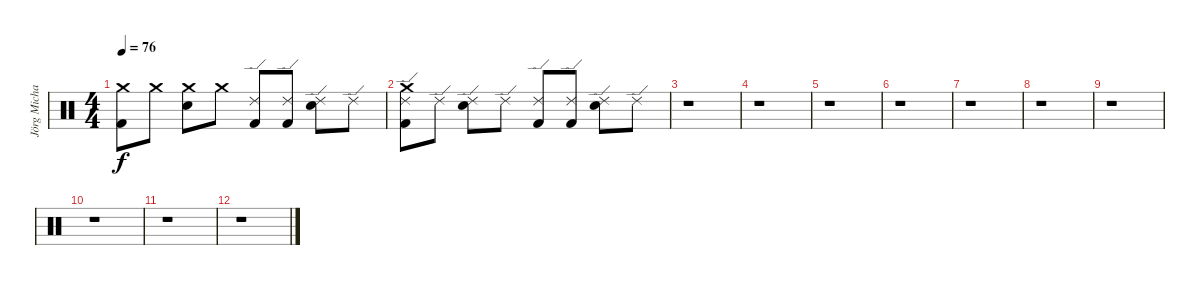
\track ("Jörg Michael" "Jörg Micha") {instrument percussion}
\staff {score}
\articulation defaults
\ts (4 4)
\tempo 76
\clef neutral
\ks c
("Crash medium (hit)" "Kick (hit) 2").8{dy f volume 7} "Crash medium (hit)".8{volume 7} ("Crash medium (hit)" "Electric Snare (hit)").8{volume 6} "Crash medium (hit)".8{volume 6} ("Ride (edge) 2" "Kick (hit) 2").8{volume 5} ("Ride (edge) 2" "Kick (hit) 2").8{volume 5} ("Electric Snare (hit)" "Ride (edge) 2").8{volume 4} "Ride (edge) 2".8{volume 4} |
("Ride (edge) 2" "Crash medium (hit)" "Kick (hit) 2").8{volume 4} "Ride (edge) 2".8{volume 3} ("Ride (edge) 2" "Electric Snare (hit)").8{volume 3} "Ride (edge) 2".8{volume 2} ("Ride (edge) 2" "Kick (hit) 2").8{volume 2} ("Ride (edge) 2" "Kick (hit) 2").8{volume 1} ("Ride (edge) 2" "Electric Snare (hit)").8{volume 1} "Ride (edge) 2".8{volume 0} |
r.1 |
r.1 |
r.1 |
r.1 |
r.1 |
r.1 |
r.1 |
r.1 |
r.1 |
r.1
